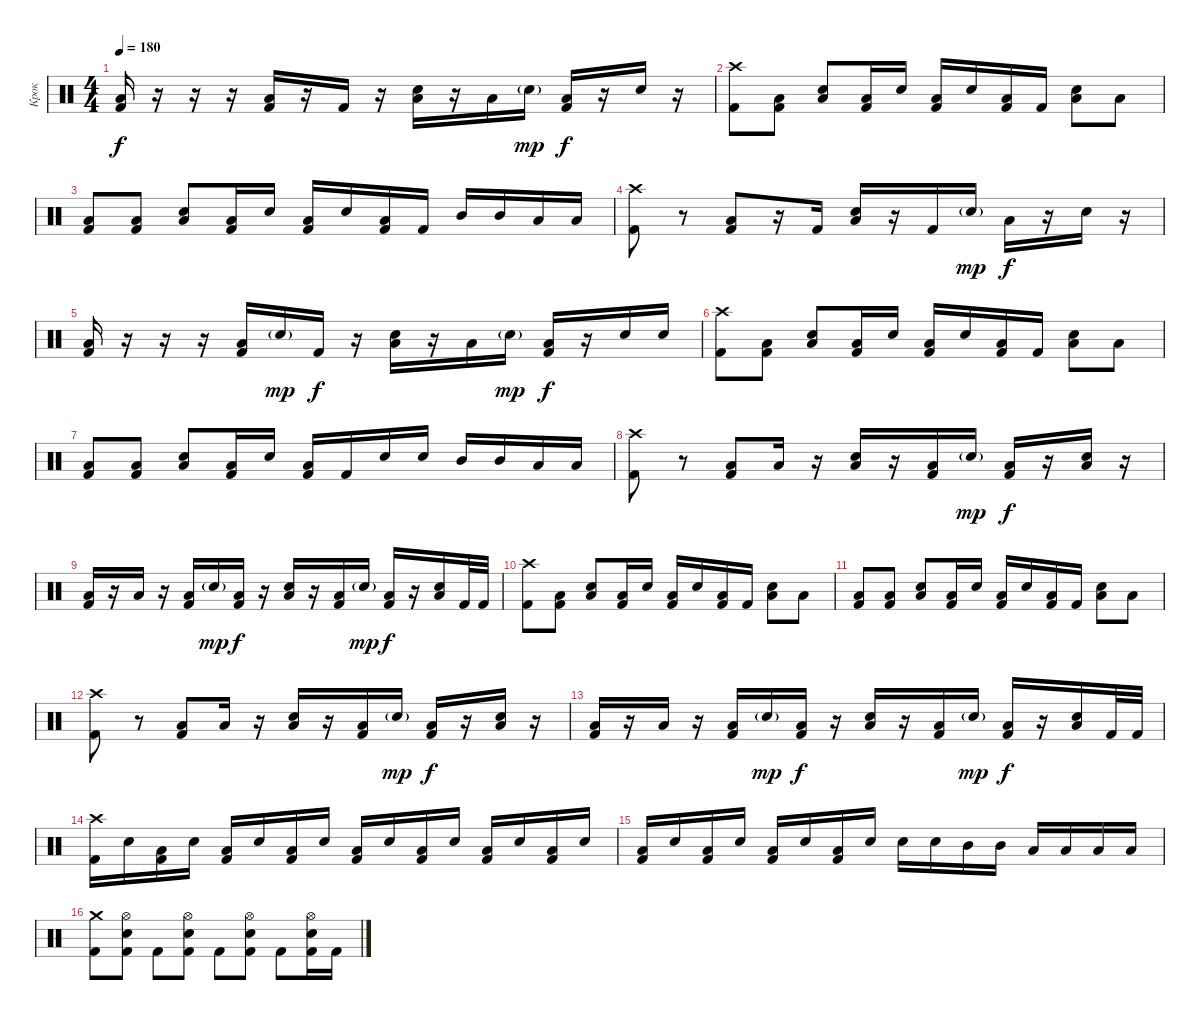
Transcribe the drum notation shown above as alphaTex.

\track ("Крок" "Крок") {instrument percussion}
\staff {score}
\articulation defaults
\ts (4 4)
\tempo 180
\clef neutral
\ks c
("Kick (hit) 2" "Low Floor Tom (hit)").16{dy f} r.16 r.16 r.16 ("Kick (hit) 2" "Low Floor Tom (hit)").16 r.16 "Kick (hit) 2".16 r.16 ("Electric Snare (hit)" "Low Tom (hit)").16 r.16 "Low Tom (hit)".16 "Electric Snare (hit)"{g}.16{dy mp} ("Kick (hit) 2" "Low Floor Tom (hit)").16{dy f} r.16 "Electric Snare (hit)".16 r.16 |
("Kick (hit) 2" "Crash high (hit)").8 ("Kick (hit) 2" "Low Floor Tom (hit)").8 ("Electric Snare (hit)" "Low Floor Tom (hit)").8 ("Kick (hit) 2" "Low Floor Tom (hit)").16 "Electric Snare (hit)".16 ("Kick (hit) 2" "Low Floor Tom (hit)").16 "Electric Snare (hit)".16 ("Kick (hit) 2" "Low Floor Tom (hit)").16 "Kick (hit) 2".16 ("Electric Snare (hit)" "Low Floor Tom (hit)").8 "Low Floor Tom (hit)".8 |
("Kick (hit) 2" "Low Tom (hit)").8 ("Kick (hit) 2" "Low Tom (hit)").8 ("Electric Snare (hit)" "Low Tom (hit)").8 ("Kick (hit) 2" "Low Tom (hit)").16 "Electric Snare (hit)".16 ("Kick (hit) 2" "Low Tom (hit)").16 "Electric Snare (hit)".16 ("Kick (hit) 2" "Low Tom (hit)").16 "Kick (hit) 2".16 "Mid Tom (hit)".16 "Mid Tom (hit)".16 "Low Tom (hit)".16 "Low Tom (hit)".16 |
("Crash high (hit)" "Kick (hit) 2").8 r.8 ("Kick (hit) 2" "Low Floor Tom (hit)").8 r.16 "Kick (hit) 2".16 ("Electric Snare (hit)" "Low Floor Tom (hit)").16 r.16 "Kick (hit) 2".16 "Electric Snare (hit)"{g}.16{dy mp} "Low Floor Tom (hit)".16{dy f} r.16 "Electric Snare (hit)".16 r.16 |
("Kick (hit) 2" "Low Floor Tom (hit)").16 r.16 r.16 r.16 ("Kick (hit) 2" "Low Floor Tom (hit)").16 "Electric Snare (hit)"{g}.16{dy mp} "Kick (hit) 2".16{dy f} r.16 ("Electric Snare (hit)" "Low Tom (hit)").16 r.16 "Low Tom (hit)".16 "Electric Snare (hit)"{g}.16{dy mp} ("Kick (hit) 2" "Low Floor Tom (hit)").16{dy f} r.16 "Electric Snare (hit)".16 "Electric Snare (hit)".16 |
("Kick (hit) 2" "Crash high (hit)").8 ("Kick (hit) 2" "Low Floor Tom (hit)").8 ("Electric Snare (hit)" "Low Floor Tom (hit)").8 ("Kick (hit) 2" "Low Floor Tom (hit)").16 "Electric Snare (hit)".16 ("Kick (hit) 2" "Low Floor Tom (hit)").16 "Electric Snare (hit)".16 ("Kick (hit) 2" "Low Floor Tom (hit)").16 "Kick (hit) 2".16 ("Electric Snare (hit)" "Low Floor Tom (hit)").8 "Low Floor Tom (hit)".8 |
("Kick (hit) 2" "Low Tom (hit)").8 ("Kick (hit) 2" "Low Tom (hit)").8 ("Electric Snare (hit)" "Low Tom (hit)").8 ("Kick (hit) 2" "Low Tom (hit)").16 "Electric Snare (hit)".16 ("Kick (hit) 2" "Low Tom (hit)").16 "Kick (hit) 2".16 "Electric Snare (hit)".16 "Electric Snare (hit)".16 "Mid Tom (hit)".16 "Mid Tom (hit)".16 "Low Tom (hit)".16 "Low Tom (hit)".16 |
("Crash high (hit)" "Kick (hit) 2").8 r.8 ("Kick (hit) 2" "Low Floor Tom (hit)").8 "Low Floor Tom (hit)".16 r.16 ("Electric Snare (hit)" "Low Floor Tom (hit)").16 r.16 ("Kick (hit) 2" "Low Floor Tom (hit)").16 "Electric Snare (hit)"{g}.16{dy mp} ("Kick (hit) 2" "Low Floor Tom (hit)").16{dy f} r.16 ("Electric Snare (hit)" "Low Floor Tom (hit)").16 r.16 |
("Kick (hit) 2" "Low Floor Tom (hit)").16 r.16 "Low Floor Tom (hit)".16 r.16 ("Kick (hit) 2" "Low Floor Tom (hit)").16 "Electric Snare (hit)"{g}.16{dy mp} ("Kick (hit) 2" "Low Floor Tom (hit)").16{dy f} r.16 ("Electric Snare (hit)" "Low Floor Tom (hit)").16 r.16 ("Kick (hit) 2" "Low Floor Tom (hit)").16 "Electric Snare (hit)"{g}.16{dy mp} ("Kick (hit) 2" "Low Floor Tom (hit)").16{dy f} r.16 ("Electric Snare (hit)" "Low Floor Tom (hit)").16 "Kick (hit) 2".32 "Kick (hit) 2".32 |
("Kick (hit) 2" "Crash high (hit)").8 ("Kick (hit) 2" "Low Floor Tom (hit)").8 ("Electric Snare (hit)" "Low Floor Tom (hit)").8 ("Kick (hit) 2" "Low Floor Tom (hit)").16 "Electric Snare (hit)".16 ("Kick (hit) 2" "Low Floor Tom (hit)").16 "Electric Snare (hit)".16 ("Kick (hit) 2" "Low Floor Tom (hit)").16 "Kick (hit) 2".16 ("Electric Snare (hit)" "Low Floor Tom (hit)").8 "Low Floor Tom (hit)".8 |
("Kick (hit) 2" "Low Tom (hit)").8 ("Kick (hit) 2" "Low Tom (hit)").8 ("Electric Snare (hit)" "Low Tom (hit)").8 ("Kick (hit) 2" "Low Tom (hit)").16 "Electric Snare (hit)".16 ("Kick (hit) 2" "Low Tom (hit)").16 "Electric Snare (hit)".16 ("Kick (hit) 2" "Low Tom (hit)").16 "Kick (hit) 2".16 ("Electric Snare (hit)" "Low Tom (hit)").8 "Low Tom (hit)".8 |
("Crash high (hit)" "Kick (hit) 2").8 r.8 ("Kick (hit) 2" "Low Floor Tom (hit)").8 "Low Floor Tom (hit)".16 r.16 ("Electric Snare (hit)" "Low Floor Tom (hit)").16 r.16 ("Kick (hit) 2" "Low Floor Tom (hit)").16 "Electric Snare (hit)"{g}.16{dy mp} ("Kick (hit) 2" "Low Floor Tom (hit)").16{dy f} r.16 ("Electric Snare (hit)" "Low Floor Tom (hit)").16 r.16 |
("Kick (hit) 2" "Low Floor Tom (hit)").16 r.16 "Low Floor Tom (hit)".16 r.16 ("Kick (hit) 2" "Low Floor Tom (hit)").16 "Electric Snare (hit)"{g}.16{dy mp} ("Kick (hit) 2" "Low Floor Tom (hit)").16{dy f} r.16 ("Electric Snare (hit)" "Low Floor Tom (hit)").16 r.16 ("Kick (hit) 2" "Low Floor Tom (hit)").16 "Electric Snare (hit)"{g}.16{dy mp} ("Kick (hit) 2" "Low Floor Tom (hit)").16{dy f} r.16 ("Electric Snare (hit)" "Low Floor Tom (hit)").16 "Kick (hit) 2".32 "Kick (hit) 2".32 |
("Kick (hit) 2" "Crash high (hit)").16 "Electric Snare (hit)".16 ("Kick (hit) 2" "Low Floor Tom (hit)").16 "Electric Snare (hit)".16 ("Kick (hit) 2" "Low Floor Tom (hit)").16 "Electric Snare (hit)".16 ("Kick (hit) 2" "Low Floor Tom (hit)").16 "Electric Snare (hit)".16 ("Kick (hit) 2" "Low Floor Tom (hit)").16 "Electric Snare (hit)".16 ("Kick (hit) 2" "Low Floor Tom (hit)").16 "Electric Snare (hit)".16 ("Kick (hit) 2" "Low Floor Tom (hit)").16 "Electric Snare (hit)".16 ("Kick (hit) 2" "Low Floor Tom (hit)").16 "Electric Snare (hit)".16 |
("Kick (hit) 2" "Low Floor Tom (hit)").16 "Electric Snare (hit)".16 ("Kick (hit) 2" "Low Floor Tom (hit)").16 "Electric Snare (hit)".16 ("Kick (hit) 2" "Low Floor Tom (hit)").16 "Electric Snare (hit)".16 ("Kick (hit) 2" "Low Floor Tom (hit)").16 "Electric Snare (hit)".16 "Electric Snare (hit)".16 "Electric Snare (hit)".16 "Mid Tom (hit)".16 "Mid Tom (hit)".16 "Low Tom (hit)".16 "Low Tom (hit)".16 "Low Tom (hit)".16 "Low Tom (hit)".16 |
("Kick (hit) 2" "Crash medium (hit)").8 ("Kick (hit) 2" "Electric Snare (hit)" "Hi-Hat (open)").8 "Kick (hit) 2".8 ("Kick (hit) 2" "Electric Snare (hit)" "Hi-Hat (open)").8 "Kick (hit) 2".8 ("Kick (hit) 2" "Electric Snare (hit)" "Hi-Hat (open)").8 "Kick (hit) 2".8 ("Kick (hit) 2" "Electric Snare (hit)" "Hi-Hat (open)").16 "Kick (hit) 2".16
